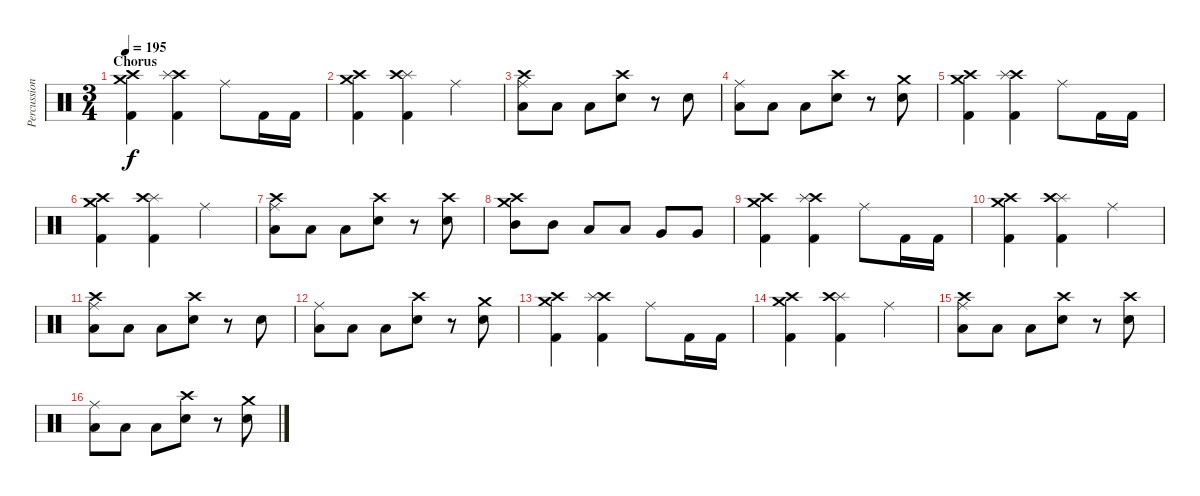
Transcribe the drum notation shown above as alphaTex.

\track ("Percussion" "Percussion") {instrument percussion}
\staff {score}
\articulation defaults
\ts (3 4)
\section ("" "Chorus")
\tempo 195
\clef neutral
\ks c
("Crash high (hit)" "Crash medium (hit)" "Kick (hit) 2").4{dy f} ("Crash high (hit)" "Splash (hit)" "Kick (hit) 2").4 "Ride (middle)".8 "Kick (hit) 2".16 "Kick (hit) 2".16 |
("Crash high (hit)" "Crash medium (hit)" "Kick (hit) 2").4 ("Splash (hit)" "Crash high (hit)" "Kick (hit) 2").4 "Ride (middle)".4 |
("Ride (middle)" "Crash high (hit)" "Low Tom (hit)").8 "Low Tom (hit)".8 "Low Tom (hit)".8 ("Crash high (hit)" "Snare (hit) 2").8 r.8 "Snare (hit) 2".8 |
("Ride (middle)" "Low Tom (hit)").8 "Low Tom (hit)".8 "Low Tom (hit)".8 ("Crash high (hit)" "Snare (hit) 2").8 r.8 ("Crash medium (hit)" "Snare (hit) 2").8 |
("Crash high (hit)" "Crash medium (hit)" "Kick (hit) 2").4 ("Crash high (hit)" "Splash (hit)" "Kick (hit) 2").4 "Ride (middle)".8 "Kick (hit) 2".16 "Kick (hit) 2".16 |
("Crash high (hit)" "Crash medium (hit)" "Kick (hit) 2").4 ("Splash (hit)" "Crash high (hit)" "Kick (hit) 2").4 "Ride (middle)".4 |
("Ride (middle)" "Crash high (hit)" "Low Tom (hit)").8 "Low Tom (hit)".8 "Low Tom (hit)".8 ("Crash high (hit)" "Snare (hit) 2").8 r.8 ("Crash high (hit)" "Snare (hit) 2").8 |
("Crash medium (hit)" "Crash high (hit)" "Mid Tom (hit)").8 "Mid Tom (hit)".8 "Low Tom (hit)".8 "Low Tom (hit)".8 "Very Low Tom (hit)".8 "Very Low Tom (hit)".8 |
("Crash high (hit)" "Crash medium (hit)" "Kick (hit) 2").4 ("Crash high (hit)" "Splash (hit)" "Kick (hit) 2").4 "Ride (middle)".8 "Kick (hit) 2".16 "Kick (hit) 2".16 |
("Crash high (hit)" "Crash medium (hit)" "Kick (hit) 2").4 ("Splash (hit)" "Crash high (hit)" "Kick (hit) 2").4 "Ride (middle)".4 |
("Ride (middle)" "Crash high (hit)" "Low Tom (hit)").8 "Low Tom (hit)".8 "Low Tom (hit)".8 ("Crash high (hit)" "Snare (hit) 2").8 r.8 "Snare (hit) 2".8 |
("Ride (middle)" "Low Tom (hit)").8 "Low Tom (hit)".8 "Low Tom (hit)".8 ("Crash high (hit)" "Snare (hit) 2").8 r.8 ("Crash medium (hit)" "Snare (hit) 2").8 |
("Crash high (hit)" "Crash medium (hit)" "Kick (hit) 2").4 ("Crash high (hit)" "Splash (hit)" "Kick (hit) 2").4 "Ride (middle)".8 "Kick (hit) 2".16 "Kick (hit) 2".16 |
("Crash high (hit)" "Crash medium (hit)" "Kick (hit) 2").4 ("Splash (hit)" "Crash high (hit)" "Kick (hit) 2").4 "Ride (middle)".4 |
("Ride (middle)" "Crash high (hit)" "Low Tom (hit)").8 "Low Tom (hit)".8 "Low Tom (hit)".8 ("Crash high (hit)" "Snare (hit) 2").8 r.8 ("Crash high (hit)" "Snare (hit) 2").8 |
("Ride (middle)" "Low Tom (hit)").8 "Low Tom (hit)".8 "Low Tom (hit)".8 ("Crash high (hit)" "Snare (hit) 2").8 r.8 ("Crash medium (hit)" "Snare (hit) 2").8
